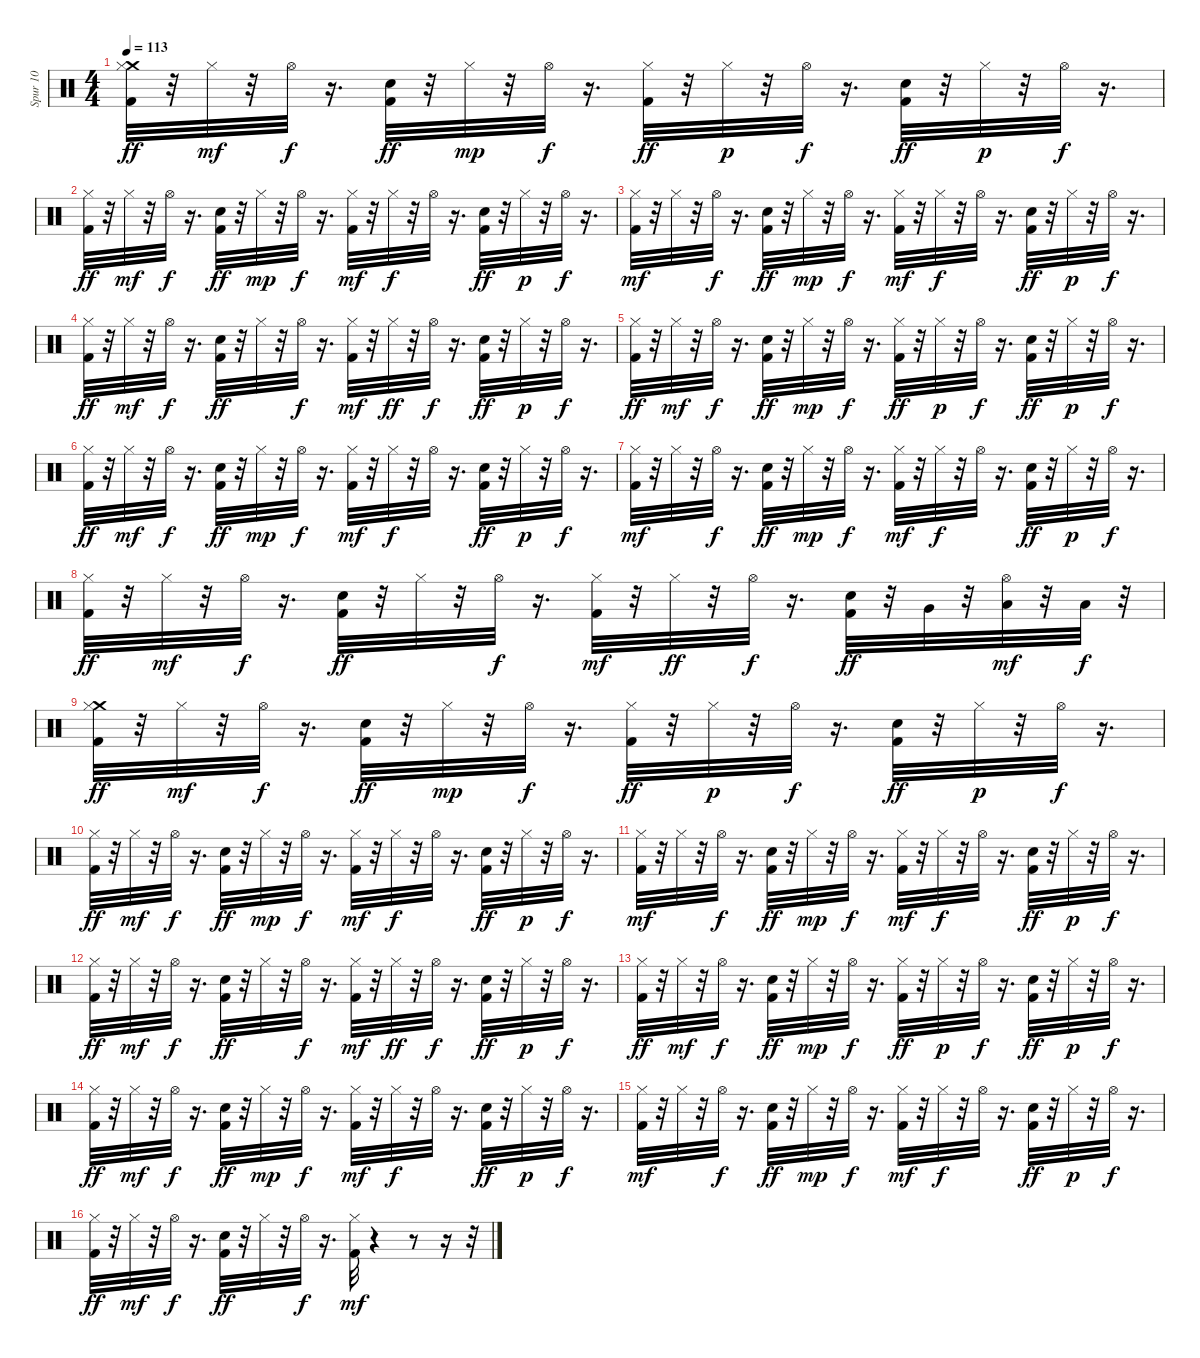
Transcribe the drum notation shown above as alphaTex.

\track ("Spur 10" "Spur 10") {instrument percussion}
\staff {score}
\articulation defaults
\ts (4 4)
\tempo 113
\clef neutral
\ks c
("Crash medium (hit)" "Kick (hit) 2" "Hi-Hat (closed)").32{dy ff} r.32 "Hi-Hat (closed)".32{dy mf} r.32 "Hi-Hat (open)".32{dy f} r.16{d} ("Kick (hit) 2" "Snare (hit) 2").32{dy ff} r.32 "Hi-Hat (closed)".32{dy mp} r.32 "Hi-Hat (open)".32{dy f} r.16{d} ("Kick (hit) 2" "Hi-Hat (closed)").32{dy ff} r.32 "Hi-Hat (closed)".32{dy p} r.32 "Hi-Hat (open)".32{dy f} r.16{d} ("Kick (hit) 2" "Snare (hit) 2").32{dy ff} r.32 "Hi-Hat (closed)".32{dy p} r.32 "Hi-Hat (open)".32{dy f} r.16{d} |
("Kick (hit) 2" "Hi-Hat (closed)").32{dy ff} r.32 "Hi-Hat (closed)".32{dy mf} r.32 "Hi-Hat (open)".32{dy f} r.16{d} ("Kick (hit) 2" "Snare (hit) 2").32{dy ff} r.32 "Hi-Hat (closed)".32{dy mp} r.32 "Hi-Hat (open)".32{dy f} r.16{d} ("Kick (hit) 2" "Hi-Hat (closed)").32{dy mf} r.32 "Hi-Hat (closed)".32{dy f} r.32 "Hi-Hat (open)".32 r.16{d} ("Kick (hit) 2" "Snare (hit) 2").32{dy ff} r.32 "Hi-Hat (closed)".32{dy p} r.32 "Hi-Hat (open)".32{dy f} r.16{d} |
("Kick (hit) 2" "Hi-Hat (closed)").32{dy mf} r.32 "Hi-Hat (closed)".32 r.32 "Hi-Hat (open)".32{dy f} r.16{d} ("Kick (hit) 2" "Snare (hit) 2").32{dy ff} r.32 "Hi-Hat (closed)".32{dy mp} r.32 "Hi-Hat (open)".32{dy f} r.16{d} ("Kick (hit) 2" "Hi-Hat (closed)").32{dy mf} r.32 "Hi-Hat (closed)".32{dy f} r.32 "Hi-Hat (open)".32 r.16{d} ("Kick (hit) 2" "Snare (hit) 2").32{dy ff} r.32 "Hi-Hat (closed)".32{dy p} r.32 "Hi-Hat (open)".32{dy f} r.16{d} |
("Kick (hit) 2" "Hi-Hat (closed)").32{dy ff} r.32 "Hi-Hat (closed)".32{dy mf} r.32 "Hi-Hat (open)".32{dy f} r.16{d} ("Kick (hit) 2" "Snare (hit) 2").32{dy ff} r.32 "Hi-Hat (closed)".32 r.32 "Hi-Hat (open)".32{dy f} r.16{d} ("Kick (hit) 2" "Hi-Hat (closed)").32{dy mf} r.32 "Hi-Hat (closed)".32{dy ff} r.32 "Hi-Hat (open)".32{dy f} r.16{d} ("Kick (hit) 2" "Snare (hit) 2").32{dy ff} r.32 "Hi-Hat (closed)".32{dy p} r.32 "Hi-Hat (open)".32{dy f} r.16{d} |
("Kick (hit) 2" "Hi-Hat (closed)").32{dy ff} r.32 "Hi-Hat (closed)".32{dy mf} r.32 "Hi-Hat (open)".32{dy f} r.16{d} ("Kick (hit) 2" "Snare (hit) 2").32{dy ff} r.32 "Hi-Hat (closed)".32{dy mp} r.32 "Hi-Hat (open)".32{dy f} r.16{d} ("Kick (hit) 2" "Hi-Hat (closed)").32{dy ff} r.32 "Hi-Hat (closed)".32{dy p} r.32 "Hi-Hat (open)".32{dy f} r.16{d} ("Kick (hit) 2" "Snare (hit) 2").32{dy ff} r.32 "Hi-Hat (closed)".32{dy p} r.32 "Hi-Hat (open)".32{dy f} r.16{d} |
("Kick (hit) 2" "Hi-Hat (closed)").32{dy ff} r.32 "Hi-Hat (closed)".32{dy mf} r.32 "Hi-Hat (open)".32{dy f} r.16{d} ("Kick (hit) 2" "Snare (hit) 2").32{dy ff} r.32 "Hi-Hat (closed)".32{dy mp} r.32 "Hi-Hat (open)".32{dy f} r.16{d} ("Kick (hit) 2" "Hi-Hat (closed)").32{dy mf} r.32 "Hi-Hat (closed)".32{dy f} r.32 "Hi-Hat (open)".32 r.16{d} ("Kick (hit) 2" "Snare (hit) 2").32{dy ff} r.32 "Hi-Hat (closed)".32{dy p} r.32 "Hi-Hat (open)".32{dy f} r.16{d} |
("Kick (hit) 2" "Hi-Hat (closed)").32{dy mf} r.32 "Hi-Hat (closed)".32 r.32 "Hi-Hat (open)".32{dy f} r.16{d} ("Kick (hit) 2" "Snare (hit) 2").32{dy ff} r.32 "Hi-Hat (closed)".32{dy mp} r.32 "Hi-Hat (open)".32{dy f} r.16{d} ("Kick (hit) 2" "Hi-Hat (closed)").32{dy mf} r.32 "Hi-Hat (closed)".32{dy f} r.32 "Hi-Hat (open)".32 r.16{d} ("Kick (hit) 2" "Snare (hit) 2").32{dy ff} r.32 "Hi-Hat (closed)".32{dy p} r.32 "Hi-Hat (open)".32{dy f} r.16{d} |
("Kick (hit) 2" "Hi-Hat (closed)").32{dy ff} r.32 "Hi-Hat (closed)".32{dy mf} r.32 "Hi-Hat (open)".32{dy f} r.16{d} ("Kick (hit) 2" "Snare (hit) 2").32{dy ff} r.32 "Hi-Hat (closed)".32 r.32 "Hi-Hat (open)".32{dy f} r.16{d} ("Kick (hit) 2" "Hi-Hat (closed)").32{dy mf} r.32 "Hi-Hat (closed)".32{dy ff} r.32 "Hi-Hat (open)".32{dy f} r.16{d} ("Kick (hit) 2" "Snare (hit) 2").32{dy ff} r.32 "Very Low Tom (hit)".32 r.32 ("Low Floor Tom (hit)" "Hi-Hat (open)").32{dy mf} r.32 "Low Floor Tom (hit)".32{dy f} r.32 |
("Crash medium (hit)" "Kick (hit) 2" "Hi-Hat (closed)").32{dy ff} r.32 "Hi-Hat (closed)".32{dy mf} r.32 "Hi-Hat (open)".32{dy f} r.16{d} ("Kick (hit) 2" "Snare (hit) 2").32{dy ff} r.32 "Hi-Hat (closed)".32{dy mp} r.32 "Hi-Hat (open)".32{dy f} r.16{d} ("Kick (hit) 2" "Hi-Hat (closed)").32{dy ff} r.32 "Hi-Hat (closed)".32{dy p} r.32 "Hi-Hat (open)".32{dy f} r.16{d} ("Kick (hit) 2" "Snare (hit) 2").32{dy ff} r.32 "Hi-Hat (closed)".32{dy p} r.32 "Hi-Hat (open)".32{dy f} r.16{d} |
("Kick (hit) 2" "Hi-Hat (closed)").32{dy ff} r.32 "Hi-Hat (closed)".32{dy mf} r.32 "Hi-Hat (open)".32{dy f} r.16{d} ("Kick (hit) 2" "Snare (hit) 2").32{dy ff} r.32 "Hi-Hat (closed)".32{dy mp} r.32 "Hi-Hat (open)".32{dy f} r.16{d} ("Kick (hit) 2" "Hi-Hat (closed)").32{dy mf} r.32 "Hi-Hat (closed)".32{dy f} r.32 "Hi-Hat (open)".32 r.16{d} ("Kick (hit) 2" "Snare (hit) 2").32{dy ff} r.32 "Hi-Hat (closed)".32{dy p} r.32 "Hi-Hat (open)".32{dy f} r.16{d} |
("Kick (hit) 2" "Hi-Hat (closed)").32{dy mf} r.32 "Hi-Hat (closed)".32 r.32 "Hi-Hat (open)".32{dy f} r.16{d} ("Kick (hit) 2" "Snare (hit) 2").32{dy ff} r.32 "Hi-Hat (closed)".32{dy mp} r.32 "Hi-Hat (open)".32{dy f} r.16{d} ("Kick (hit) 2" "Hi-Hat (closed)").32{dy mf} r.32 "Hi-Hat (closed)".32{dy f} r.32 "Hi-Hat (open)".32 r.16{d} ("Kick (hit) 2" "Snare (hit) 2").32{dy ff} r.32 "Hi-Hat (closed)".32{dy p} r.32 "Hi-Hat (open)".32{dy f} r.16{d} |
("Kick (hit) 2" "Hi-Hat (closed)").32{dy ff} r.32 "Hi-Hat (closed)".32{dy mf} r.32 "Hi-Hat (open)".32{dy f} r.16{d} ("Kick (hit) 2" "Snare (hit) 2").32{dy ff} r.32 "Hi-Hat (closed)".32 r.32 "Hi-Hat (open)".32{dy f} r.16{d} ("Kick (hit) 2" "Hi-Hat (closed)").32{dy mf} r.32 "Hi-Hat (closed)".32{dy ff} r.32 "Hi-Hat (open)".32{dy f} r.16{d} ("Kick (hit) 2" "Snare (hit) 2").32{dy ff} r.32 "Hi-Hat (closed)".32{dy p} r.32 "Hi-Hat (open)".32{dy f} r.16{d} |
("Kick (hit) 2" "Hi-Hat (closed)").32{dy ff} r.32 "Hi-Hat (closed)".32{dy mf} r.32 "Hi-Hat (open)".32{dy f} r.16{d} ("Kick (hit) 2" "Snare (hit) 2").32{dy ff} r.32 "Hi-Hat (closed)".32{dy mp} r.32 "Hi-Hat (open)".32{dy f} r.16{d} ("Kick (hit) 2" "Hi-Hat (closed)").32{dy ff} r.32 "Hi-Hat (closed)".32{dy p} r.32 "Hi-Hat (open)".32{dy f} r.16{d} ("Kick (hit) 2" "Snare (hit) 2").32{dy ff} r.32 "Hi-Hat (closed)".32{dy p} r.32 "Hi-Hat (open)".32{dy f} r.16{d} |
("Kick (hit) 2" "Hi-Hat (closed)").32{dy ff} r.32 "Hi-Hat (closed)".32{dy mf} r.32 "Hi-Hat (open)".32{dy f} r.16{d} ("Kick (hit) 2" "Snare (hit) 2").32{dy ff} r.32 "Hi-Hat (closed)".32{dy mp} r.32 "Hi-Hat (open)".32{dy f} r.16{d} ("Kick (hit) 2" "Hi-Hat (closed)").32{dy mf} r.32 "Hi-Hat (closed)".32{dy f} r.32 "Hi-Hat (open)".32 r.16{d} ("Kick (hit) 2" "Snare (hit) 2").32{dy ff} r.32 "Hi-Hat (closed)".32{dy p} r.32 "Hi-Hat (open)".32{dy f} r.16{d} |
("Kick (hit) 2" "Hi-Hat (closed)").32{dy mf} r.32 "Hi-Hat (closed)".32 r.32 "Hi-Hat (open)".32{dy f} r.16{d} ("Kick (hit) 2" "Snare (hit) 2").32{dy ff} r.32 "Hi-Hat (closed)".32{dy mp} r.32 "Hi-Hat (open)".32{dy f} r.16{d} ("Kick (hit) 2" "Hi-Hat (closed)").32{dy mf} r.32 "Hi-Hat (closed)".32{dy f} r.32 "Hi-Hat (open)".32 r.16{d} ("Kick (hit) 2" "Snare (hit) 2").32{dy ff} r.32 "Hi-Hat (closed)".32{dy p} r.32 "Hi-Hat (open)".32{dy f} r.16{d} |
("Kick (hit) 2" "Hi-Hat (closed)").32{dy ff} r.32 "Hi-Hat (closed)".32{dy mf} r.32 "Hi-Hat (open)".32{dy f} r.16{d} ("Kick (hit) 2" "Snare (hit) 2").32{dy ff} r.32 "Hi-Hat (closed)".32 r.32 "Hi-Hat (open)".32{dy f} r.16{d} ("Kick (hit) 2" "Hi-Hat (closed)").32{dy mf} r.4 r.8 r.16 r.32
